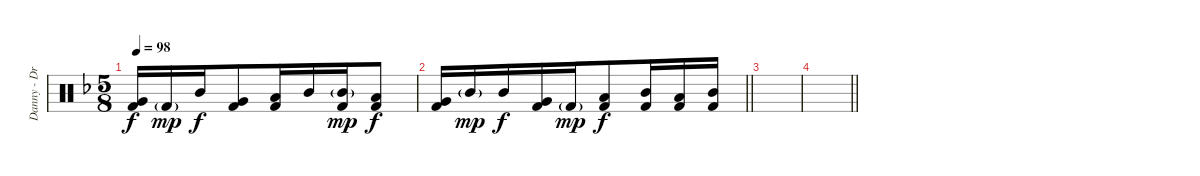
\track ("Danny - Drums" "Danny - Dr") {instrument percussion}
\staff {score}
\articulation defaults
\ts (5 8)
\tempo 98
\clef neutral
\ks dminor
("Very Low Tom (hit)" "Kick (hit) 2").16{dy f} "Kick (hit) 2"{g}.16{dy mp beam merge} "Mid Tom (hit)".16{dy f} ("Very Low Tom (hit)" "Kick (hit) 2").8 ("Low Tom (hit)" "Kick (hit) 2").16{beam merge} "Mid Tom (hit)".16 ("Mid Tom (hit)"{g} "Kick (hit) 2").16{dy mp beam merge} ("Low Tom (hit)" "Kick (hit) 2").8{dy f} |
\barLineRight lightlight
("Very Low Tom (hit)" "Kick (hit) 2").16 "Mid Tom (hit)"{g}.16{dy mp beam merge} "Mid Tom (hit)".16{dy f} ("Very Low Tom (hit)" "Kick (hit) 2").16 "Kick (hit) 2"{g}.16{dy mp} ("Low Tom (hit)" "Kick (hit) 2").8{dy f beam merge} ("Mid Tom (hit)" "Kick (hit) 2").16{beam merge} ("Low Tom (hit)" "Kick (hit) 2").16 ("Mid Tom (hit)" "Kick (hit) 2").16 |
|
\barLineRight lightlight
